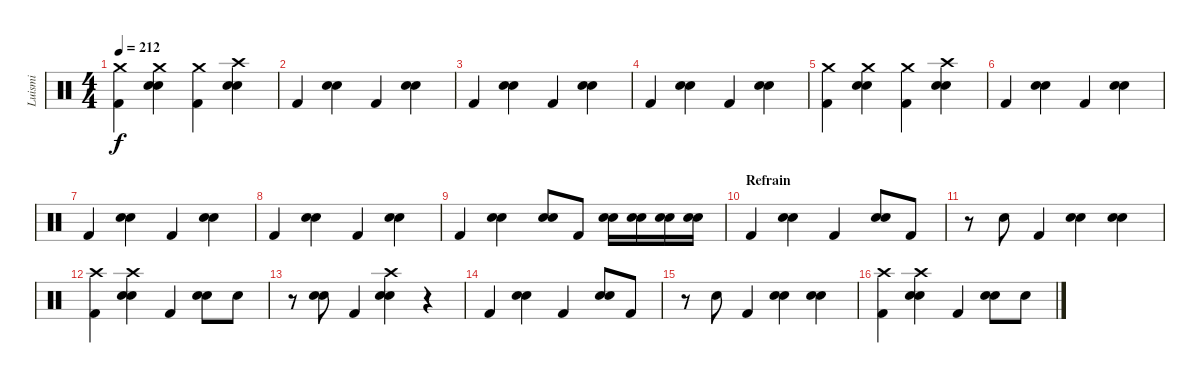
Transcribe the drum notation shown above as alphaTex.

\track ("Luismi" "Luismi") {instrument percussion}
\staff {score}
\articulation defaults
\ts (4 4)
\tempo 212
\clef neutral
\ks c
("Crash medium (hit)" "Kick (hit) 2").4{dy f} ("Crash medium (hit)" "Electric Snare (hit)" "Snare (hit) 2").4 ("Crash medium (hit)" "Kick (hit) 2").4 ("Crash high (hit)" "Electric Snare (hit)" "Snare (hit) 2").4 |
"Kick (hit) 2".4 ("Electric Snare (hit)" "Snare (hit) 2").4 "Kick (hit) 2".4 ("Electric Snare (hit)" "Snare (hit) 2").4 |
"Kick (hit) 2".4 ("Electric Snare (hit)" "Snare (hit) 2").4 "Kick (hit) 2".4 ("Electric Snare (hit)" "Snare (hit) 2").4 |
"Kick (hit) 2".4 ("Electric Snare (hit)" "Snare (hit) 2").4 "Kick (hit) 2".4 ("Electric Snare (hit)" "Snare (hit) 2").4 |
("Crash medium (hit)" "Kick (hit) 2").4 ("Crash medium (hit)" "Electric Snare (hit)" "Snare (hit) 2").4 ("Crash medium (hit)" "Kick (hit) 2").4 ("Crash high (hit)" "Electric Snare (hit)" "Snare (hit) 2").4 |
"Kick (hit) 2".4 ("Electric Snare (hit)" "Snare (hit) 2").4 "Kick (hit) 2".4 ("Electric Snare (hit)" "Snare (hit) 2").4 |
"Kick (hit) 2".4 ("Electric Snare (hit)" "Snare (hit) 2").4 "Kick (hit) 2".4 ("Electric Snare (hit)" "Snare (hit) 2").4 |
"Kick (hit) 2".4 ("Electric Snare (hit)" "Snare (hit) 2").4 "Kick (hit) 2".4 ("Electric Snare (hit)" "Snare (hit) 2").4 |
"Kick (hit) 2".4 ("Electric Snare (hit)" "Snare (hit) 2").4 ("Electric Snare (hit)" "Snare (hit) 2").8 "Kick (hit) 2".8 ("Electric Snare (hit)" "Snare (hit) 2").16 ("Electric Snare (hit)" "Snare (hit) 2").16 ("Electric Snare (hit)" "Snare (hit) 2").16 ("Electric Snare (hit)" "Snare (hit) 2").16 |
\section ("" "Refrain")
"Kick (hit) 2".4 ("Electric Snare (hit)" "Snare (hit) 2").4 "Kick (hit) 2".4 ("Electric Snare (hit)" "Snare (hit) 2").8 "Kick (hit) 2".8 |
r.8 "Electric Snare (hit)".8 "Kick (hit) 2".4 ("Electric Snare (hit)" "Snare (hit) 2").4 ("Electric Snare (hit)" "Snare (hit) 2").4 |
("Crash high (hit)" "Kick (hit) 2").4 ("Crash high (hit)" "Electric Snare (hit)" "Snare (hit) 2").4 "Kick (hit) 2".4 ("Electric Snare (hit)" "Snare (hit) 2").8 "Snare (hit) 2".8 |
r.8 ("Electric Snare (hit)" "Snare (hit) 2").8 "Kick (hit) 2".4 ("Crash high (hit)" "Electric Snare (hit)" "Snare (hit) 2").4 r.4 |
"Kick (hit) 2".4 ("Electric Snare (hit)" "Snare (hit) 2").4 "Kick (hit) 2".4 ("Electric Snare (hit)" "Snare (hit) 2").8 "Kick (hit) 2".8 |
r.8 "Electric Snare (hit)".8 "Kick (hit) 2".4 ("Electric Snare (hit)" "Snare (hit) 2").4 ("Electric Snare (hit)" "Snare (hit) 2").4 |
("Crash high (hit)" "Kick (hit) 2").4 ("Crash high (hit)" "Electric Snare (hit)" "Snare (hit) 2").4 "Kick (hit) 2".4 ("Electric Snare (hit)" "Snare (hit) 2").8 "Snare (hit) 2".8
